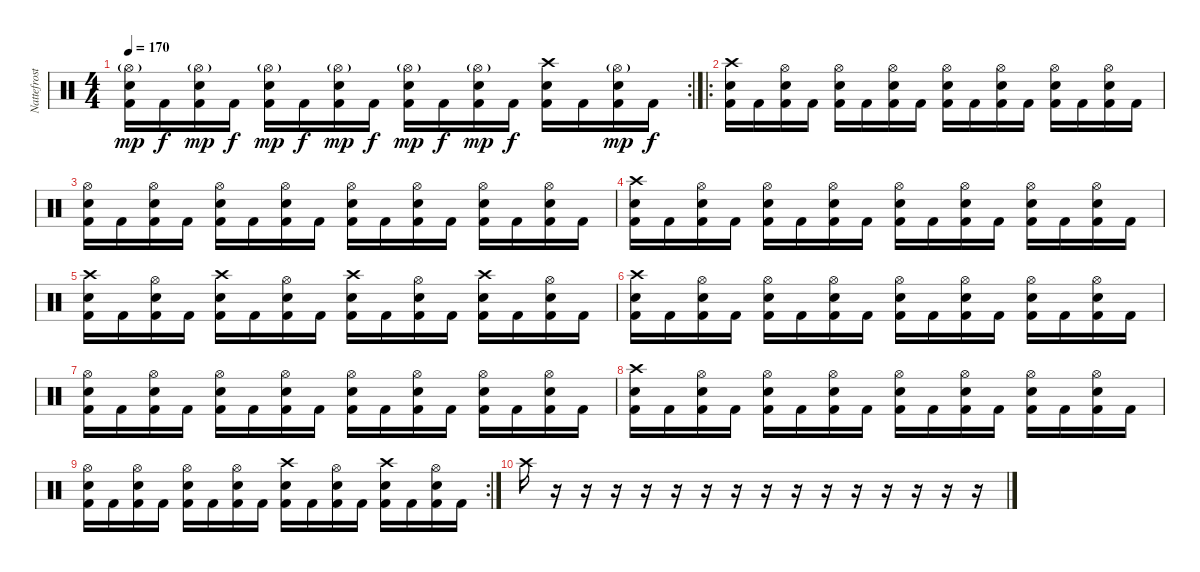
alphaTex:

\track ("Nattefrost" "Nattefrost") {instrument percussion}
\staff {score}
\articulation defaults
\rc 2
\ts (4 4)
\tempo 170
\clef neutral
\ks c
("Hi-Hat (open)"{g} "Snare (hit) 2" "Kick (hit) 2").16{dy mp} "Kick (hit) 2".16{dy f} ("Hi-Hat (open)"{g} "Snare (hit) 2" "Kick (hit) 2").16{dy mp} "Kick (hit) 2".16{dy f} ("Hi-Hat (open)"{g} "Snare (hit) 2" "Kick (hit) 2").16{dy mp} "Kick (hit) 2".16{dy f} ("Hi-Hat (open)"{g} "Snare (hit) 2" "Kick (hit) 2").16{dy mp} "Kick (hit) 2".16{dy f} ("Hi-Hat (open)"{g} "Snare (hit) 2" "Kick (hit) 2").16{dy mp} "Kick (hit) 2".16{dy f} ("Hi-Hat (open)"{g} "Snare (hit) 2" "Kick (hit) 2").16{dy mp} "Kick (hit) 2".16{dy f} ("Crash high (hit)" "Snare (hit) 2" "Kick (hit) 2").16 "Kick (hit) 2".16 ("Hi-Hat (open)"{g} "Snare (hit) 2" "Kick (hit) 2").16{dy mp} "Kick (hit) 2".16{dy f} |
\ro
("Crash high (hit)" "Snare (hit) 2" "Kick (hit) 2").16 "Kick (hit) 2".16 ("Hi-Hat (open)" "Snare (hit) 2" "Kick (hit) 2").16 "Kick (hit) 2".16 ("Hi-Hat (open)" "Snare (hit) 2" "Kick (hit) 2").16 "Kick (hit) 2".16 ("Hi-Hat (open)" "Snare (hit) 2" "Kick (hit) 2").16 "Kick (hit) 2".16 ("Hi-Hat (open)" "Snare (hit) 2" "Kick (hit) 2").16 "Kick (hit) 2".16 ("Hi-Hat (open)" "Snare (hit) 2" "Kick (hit) 2").16 "Kick (hit) 2".16 ("Hi-Hat (open)" "Snare (hit) 2" "Kick (hit) 2").16 "Kick (hit) 2".16 ("Hi-Hat (open)" "Snare (hit) 2" "Kick (hit) 2").16 "Kick (hit) 2".16 |
("Hi-Hat (open)" "Snare (hit) 2" "Kick (hit) 2").16 "Kick (hit) 2".16 ("Hi-Hat (open)" "Snare (hit) 2" "Kick (hit) 2").16 "Kick (hit) 2".16 ("Hi-Hat (open)" "Snare (hit) 2" "Kick (hit) 2").16 "Kick (hit) 2".16 ("Hi-Hat (open)" "Snare (hit) 2" "Kick (hit) 2").16 "Kick (hit) 2".16 ("Hi-Hat (open)" "Snare (hit) 2" "Kick (hit) 2").16 "Kick (hit) 2".16 ("Hi-Hat (open)" "Snare (hit) 2" "Kick (hit) 2").16 "Kick (hit) 2".16 ("Hi-Hat (open)" "Snare (hit) 2" "Kick (hit) 2").16 "Kick (hit) 2".16 ("Hi-Hat (open)" "Snare (hit) 2" "Kick (hit) 2").16 "Kick (hit) 2".16 |
("Crash high (hit)" "Snare (hit) 2" "Kick (hit) 2").16 "Kick (hit) 2".16 ("Hi-Hat (open)" "Snare (hit) 2" "Kick (hit) 2").16 "Kick (hit) 2".16 ("Hi-Hat (open)" "Snare (hit) 2" "Kick (hit) 2").16 "Kick (hit) 2".16 ("Hi-Hat (open)" "Snare (hit) 2" "Kick (hit) 2").16 "Kick (hit) 2".16 ("Hi-Hat (open)" "Snare (hit) 2" "Kick (hit) 2").16 "Kick (hit) 2".16 ("Hi-Hat (open)" "Snare (hit) 2" "Kick (hit) 2").16 "Kick (hit) 2".16 ("Hi-Hat (open)" "Snare (hit) 2" "Kick (hit) 2").16 "Kick (hit) 2".16 ("Hi-Hat (open)" "Snare (hit) 2" "Kick (hit) 2").16 "Kick (hit) 2".16 |
("Crash high (hit)" "Snare (hit) 2" "Kick (hit) 2").16 "Kick (hit) 2".16 ("Hi-Hat (open)" "Snare (hit) 2" "Kick (hit) 2").16 "Kick (hit) 2".16 ("Crash high (hit)" "Snare (hit) 2" "Kick (hit) 2").16 "Kick (hit) 2".16 ("Hi-Hat (open)" "Snare (hit) 2" "Kick (hit) 2").16 "Kick (hit) 2".16 ("Crash high (hit)" "Snare (hit) 2" "Kick (hit) 2").16 "Kick (hit) 2".16 ("Hi-Hat (open)" "Snare (hit) 2" "Kick (hit) 2").16 "Kick (hit) 2".16 ("Crash high (hit)" "Snare (hit) 2" "Kick (hit) 2").16 "Kick (hit) 2".16 ("Hi-Hat (open)" "Snare (hit) 2" "Kick (hit) 2").16 "Kick (hit) 2".16 |
("Crash high (hit)" "Snare (hit) 2" "Kick (hit) 2").16 "Kick (hit) 2".16 ("Hi-Hat (open)" "Snare (hit) 2" "Kick (hit) 2").16 "Kick (hit) 2".16 ("Hi-Hat (open)" "Snare (hit) 2" "Kick (hit) 2").16 "Kick (hit) 2".16 ("Hi-Hat (open)" "Snare (hit) 2" "Kick (hit) 2").16 "Kick (hit) 2".16 ("Hi-Hat (open)" "Snare (hit) 2" "Kick (hit) 2").16 "Kick (hit) 2".16 ("Hi-Hat (open)" "Snare (hit) 2" "Kick (hit) 2").16 "Kick (hit) 2".16 ("Hi-Hat (open)" "Snare (hit) 2" "Kick (hit) 2").16 "Kick (hit) 2".16 ("Hi-Hat (open)" "Snare (hit) 2" "Kick (hit) 2").16 "Kick (hit) 2".16 |
("Hi-Hat (open)" "Snare (hit) 2" "Kick (hit) 2").16 "Kick (hit) 2".16 ("Hi-Hat (open)" "Snare (hit) 2" "Kick (hit) 2").16 "Kick (hit) 2".16 ("Hi-Hat (open)" "Snare (hit) 2" "Kick (hit) 2").16 "Kick (hit) 2".16 ("Hi-Hat (open)" "Snare (hit) 2" "Kick (hit) 2").16 "Kick (hit) 2".16 ("Hi-Hat (open)" "Snare (hit) 2" "Kick (hit) 2").16 "Kick (hit) 2".16 ("Hi-Hat (open)" "Snare (hit) 2" "Kick (hit) 2").16 "Kick (hit) 2".16 ("Hi-Hat (open)" "Snare (hit) 2" "Kick (hit) 2").16 "Kick (hit) 2".16 ("Hi-Hat (open)" "Snare (hit) 2" "Kick (hit) 2").16 "Kick (hit) 2".16 |
("Crash high (hit)" "Snare (hit) 2" "Kick (hit) 2").16 "Kick (hit) 2".16 ("Hi-Hat (open)" "Snare (hit) 2" "Kick (hit) 2").16 "Kick (hit) 2".16 ("Hi-Hat (open)" "Snare (hit) 2" "Kick (hit) 2").16 "Kick (hit) 2".16 ("Hi-Hat (open)" "Snare (hit) 2" "Kick (hit) 2").16 "Kick (hit) 2".16 ("Hi-Hat (open)" "Snare (hit) 2" "Kick (hit) 2").16 "Kick (hit) 2".16 ("Hi-Hat (open)" "Snare (hit) 2" "Kick (hit) 2").16 "Kick (hit) 2".16 ("Hi-Hat (open)" "Snare (hit) 2" "Kick (hit) 2").16 "Kick (hit) 2".16 ("Hi-Hat (open)" "Snare (hit) 2" "Kick (hit) 2").16 "Kick (hit) 2".16 |
\rc 2
("Hi-Hat (open)" "Snare (hit) 2" "Kick (hit) 2").16 "Kick (hit) 2".16 ("Hi-Hat (open)" "Snare (hit) 2" "Kick (hit) 2").16 "Kick (hit) 2".16 ("Hi-Hat (open)" "Snare (hit) 2" "Kick (hit) 2").16 "Kick (hit) 2".16 ("Hi-Hat (open)" "Snare (hit) 2" "Kick (hit) 2").16 "Kick (hit) 2".16 ("Crash high (hit)" "Snare (hit) 2" "Kick (hit) 2").16 "Kick (hit) 2".16 ("Hi-Hat (open)" "Snare (hit) 2" "Kick (hit) 2").16 "Kick (hit) 2".16 ("Crash high (hit)" "Snare (hit) 2" "Kick (hit) 2").16 "Kick (hit) 2".16 ("Hi-Hat (open)" "Snare (hit) 2" "Kick (hit) 2").16 "Kick (hit) 2".16 |
"Crash high (hit)".16 r.16 r.16 r.16 r.16 r.16 r.16 r.16 r.16 r.16 r.16 r.16 r.16 r.16 r.16 r.16
